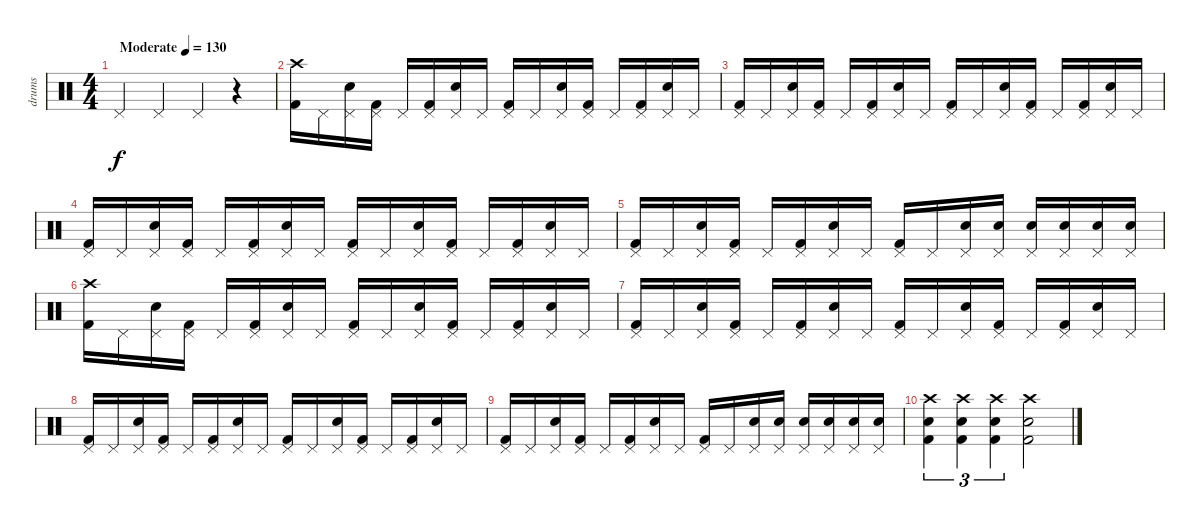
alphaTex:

\track ("drums" "drums") {instrument percussion}
\staff {score}
\articulation defaults
\ts (4 4)
\tempo (130 "Moderate")
\clef neutral
\ks c "Pedal Hi-Hat (hit)".4{dy f} "Pedal Hi-Hat (hit)".4 "Pedal Hi-Hat (hit)".4
r.4 |
("Crash high (hit)" "Kick (hit) 2").16 "Pedal Hi-Hat (hit)".16 ("Pedal Hi-Hat (hit)" "Electric Snare (hit)").16 ("Pedal Hi-Hat (hit)" "Kick (hit) 2").16 "Pedal Hi-Hat (hit)".16 ("Pedal Hi-Hat (hit)" "Kick (hit) 2").16 ("Pedal Hi-Hat (hit)" "Electric Snare (hit)").16 "Pedal Hi-Hat (hit)".16 ("Pedal Hi-Hat (hit)" "Kick (hit) 2").16 "Pedal Hi-Hat (hit)".16 ("Pedal Hi-Hat (hit)" "Electric Snare (hit)").16 ("Pedal Hi-Hat (hit)" "Kick (hit) 2").16 "Pedal Hi-Hat (hit)".16 ("Pedal Hi-Hat (hit)" "Kick (hit) 2").16 ("Pedal Hi-Hat (hit)" "Electric Snare (hit)").16 "Pedal Hi-Hat (hit)".16 |
("Pedal Hi-Hat (hit)" "Kick (hit) 2").16 "Pedal Hi-Hat (hit)".16 ("Pedal Hi-Hat (hit)" "Electric Snare (hit)").16 ("Pedal Hi-Hat (hit)" "Kick (hit) 2").16 "Pedal Hi-Hat (hit)".16 ("Pedal Hi-Hat (hit)" "Kick (hit) 2").16 ("Pedal Hi-Hat (hit)" "Electric Snare (hit)").16 "Pedal Hi-Hat (hit)".16 ("Pedal Hi-Hat (hit)" "Kick (hit) 2").16 "Pedal Hi-Hat (hit)".16 ("Pedal Hi-Hat (hit)" "Electric Snare (hit)").16 ("Pedal Hi-Hat (hit)" "Kick (hit) 2").16 "Pedal Hi-Hat (hit)".16 ("Pedal Hi-Hat (hit)" "Kick (hit) 2").16 ("Pedal Hi-Hat (hit)" "Electric Snare (hit)").16 "Pedal Hi-Hat (hit)".16 |
("Pedal Hi-Hat (hit)" "Kick (hit) 2").16 "Pedal Hi-Hat (hit)".16 ("Pedal Hi-Hat (hit)" "Electric Snare (hit)").16 ("Pedal Hi-Hat (hit)" "Kick (hit) 2").16 "Pedal Hi-Hat (hit)".16 ("Pedal Hi-Hat (hit)" "Kick (hit) 2").16 ("Pedal Hi-Hat (hit)" "Electric Snare (hit)").16 "Pedal Hi-Hat (hit)".16 ("Pedal Hi-Hat (hit)" "Kick (hit) 2").16 "Pedal Hi-Hat (hit)".16 ("Pedal Hi-Hat (hit)" "Electric Snare (hit)").16 ("Pedal Hi-Hat (hit)" "Kick (hit) 2").16 "Pedal Hi-Hat (hit)".16 ("Pedal Hi-Hat (hit)" "Kick (hit) 2").16 ("Pedal Hi-Hat (hit)" "Electric Snare (hit)").16 "Pedal Hi-Hat (hit)".16 |
("Pedal Hi-Hat (hit)" "Kick (hit) 2").16 "Pedal Hi-Hat (hit)".16 ("Pedal Hi-Hat (hit)" "Electric Snare (hit)").16 ("Pedal Hi-Hat (hit)" "Kick (hit) 2").16 "Pedal Hi-Hat (hit)".16 ("Pedal Hi-Hat (hit)" "Kick (hit) 2").16 ("Pedal Hi-Hat (hit)" "Electric Snare (hit)").16 "Pedal Hi-Hat (hit)".16 ("Pedal Hi-Hat (hit)" "Kick (hit) 2").16 "Pedal Hi-Hat (hit)".16 ("Pedal Hi-Hat (hit)" "Electric Snare (hit)").16 ("Pedal Hi-Hat (hit)" "Electric Snare (hit)").16 ("Pedal Hi-Hat (hit)" "Electric Snare (hit)").16 ("Pedal Hi-Hat (hit)" "Electric Snare (hit)").16 ("Pedal Hi-Hat (hit)" "Electric Snare (hit)").16 ("Pedal Hi-Hat (hit)" "Electric Snare (hit)").16 |
("Crash high (hit)" "Kick (hit) 2").16 "Pedal Hi-Hat (hit)".16 ("Pedal Hi-Hat (hit)" "Electric Snare (hit)").16 ("Pedal Hi-Hat (hit)" "Kick (hit) 2").16 "Pedal Hi-Hat (hit)".16 ("Pedal Hi-Hat (hit)" "Kick (hit) 2").16 ("Pedal Hi-Hat (hit)" "Electric Snare (hit)").16 "Pedal Hi-Hat (hit)".16 ("Pedal Hi-Hat (hit)" "Kick (hit) 2").16 "Pedal Hi-Hat (hit)".16 ("Pedal Hi-Hat (hit)" "Electric Snare (hit)").16 ("Pedal Hi-Hat (hit)" "Kick (hit) 2").16 "Pedal Hi-Hat (hit)".16 ("Pedal Hi-Hat (hit)" "Kick (hit) 2").16 ("Pedal Hi-Hat (hit)" "Electric Snare (hit)").16 "Pedal Hi-Hat (hit)".16 |
("Pedal Hi-Hat (hit)" "Kick (hit) 2").16 "Pedal Hi-Hat (hit)".16 ("Pedal Hi-Hat (hit)" "Electric Snare (hit)").16 ("Pedal Hi-Hat (hit)" "Kick (hit) 2").16 "Pedal Hi-Hat (hit)".16 ("Pedal Hi-Hat (hit)" "Kick (hit) 2").16 ("Pedal Hi-Hat (hit)" "Electric Snare (hit)").16 "Pedal Hi-Hat (hit)".16 ("Pedal Hi-Hat (hit)" "Kick (hit) 2").16 "Pedal Hi-Hat (hit)".16 ("Pedal Hi-Hat (hit)" "Electric Snare (hit)").16 ("Pedal Hi-Hat (hit)" "Kick (hit) 2").16 "Pedal Hi-Hat (hit)".16 ("Pedal Hi-Hat (hit)" "Kick (hit) 2").16 ("Pedal Hi-Hat (hit)" "Electric Snare (hit)").16 "Pedal Hi-Hat (hit)".16 |
("Pedal Hi-Hat (hit)" "Kick (hit) 2").16 "Pedal Hi-Hat (hit)".16 ("Pedal Hi-Hat (hit)" "Electric Snare (hit)").16 ("Pedal Hi-Hat (hit)" "Kick (hit) 2").16 "Pedal Hi-Hat (hit)".16 ("Pedal Hi-Hat (hit)" "Kick (hit) 2").16 ("Pedal Hi-Hat (hit)" "Electric Snare (hit)").16 "Pedal Hi-Hat (hit)".16 ("Pedal Hi-Hat (hit)" "Kick (hit) 2").16 "Pedal Hi-Hat (hit)".16 ("Pedal Hi-Hat (hit)" "Electric Snare (hit)").16 ("Pedal Hi-Hat (hit)" "Kick (hit) 2").16 "Pedal Hi-Hat (hit)".16 ("Pedal Hi-Hat (hit)" "Kick (hit) 2").16 ("Pedal Hi-Hat (hit)" "Electric Snare (hit)").16 "Pedal Hi-Hat (hit)".16 |
("Pedal Hi-Hat (hit)" "Kick (hit) 2").16 "Pedal Hi-Hat (hit)".16 ("Pedal Hi-Hat (hit)" "Electric Snare (hit)").16 ("Pedal Hi-Hat (hit)" "Kick (hit) 2").16 "Pedal Hi-Hat (hit)".16 ("Pedal Hi-Hat (hit)" "Kick (hit) 2").16 ("Pedal Hi-Hat (hit)" "Electric Snare (hit)").16 "Pedal Hi-Hat (hit)".16 ("Pedal Hi-Hat (hit)" "Kick (hit) 2").16 "Pedal Hi-Hat (hit)".16 ("Pedal Hi-Hat (hit)" "Electric Snare (hit)").16 ("Pedal Hi-Hat (hit)" "Electric Snare (hit)").16 ("Pedal Hi-Hat (hit)" "Electric Snare (hit)").16 ("Pedal Hi-Hat (hit)" "Electric Snare (hit)").16 ("Pedal Hi-Hat (hit)" "Electric Snare (hit)").16 ("Pedal Hi-Hat (hit)" "Electric Snare (hit)").16 |
("Crash high (hit)" "Electric Snare (hit)" "Kick (hit) 2").4{tu (3 2)} ("Crash high (hit)" "Electric Snare (hit)" "Kick (hit) 2").4{tu (3 2)} ("Crash high (hit)" "Electric Snare (hit)" "Kick (hit) 2").4{tu (3 2)} ("Crash high (hit)" "Electric Snare (hit)" "Kick (hit) 2").2
